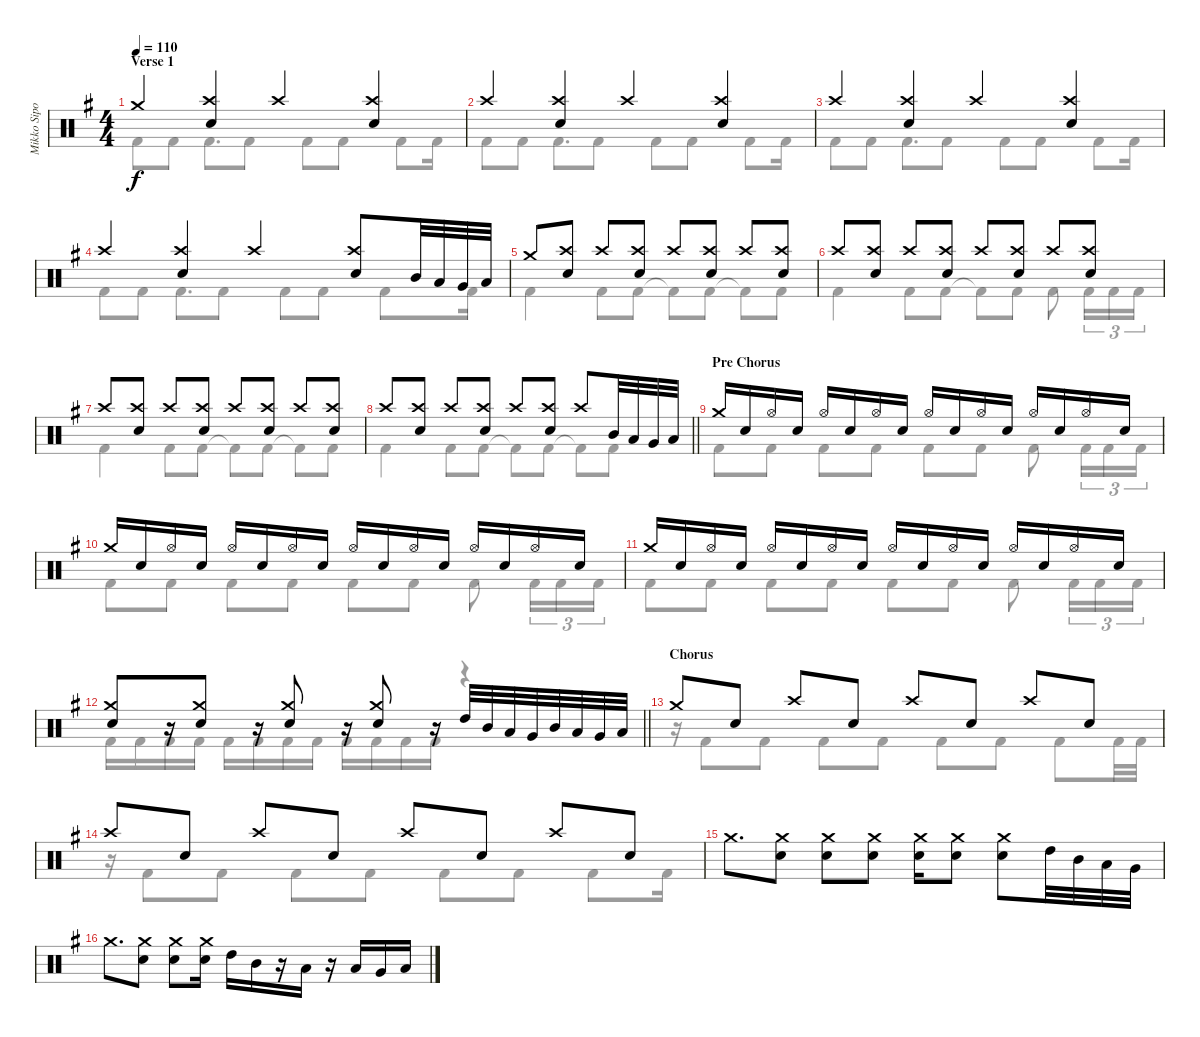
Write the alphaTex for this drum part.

\track ("Mikko Sipola (drums)" "Mikko Sipo") {instrument percussion}
\staff {score}
\articulation defaults
\voice
\ts (4 4)
\section ("" "Verse 1")
\tempo 110
\clef neutral
\ks eminor "Crash medium (hit)".4{dy f}
("Crash high (hit)" "Electric Snare (hit)").4 "Crash high (hit)".4 ("Crash high (hit)" "Electric Snare (hit)").4 |
"Crash high (hit)".4 ("Crash high (hit)" "Electric Snare (hit)").4 "Crash high (hit)".4 ("Crash high (hit)" "Electric Snare (hit)").4 |
"Crash high (hit)".4 ("Crash high (hit)" "Electric Snare (hit)").4 "Crash high (hit)".4 ("Crash high (hit)" "Electric Snare (hit)").4 |
"Crash high (hit)".4 ("Crash high (hit)" "Electric Snare (hit)").4 "Crash high (hit)".4 ("Crash high (hit)" "Electric Snare (hit)").8 "Mid Tom (hit)".32 "Low Tom (hit)".32 "Very Low Tom (hit)".32 "Low Floor Tom (hit)".32 |
"Crash medium (hit)".8 ("Crash high (hit)" "Electric Snare (hit)").8 "Crash high (hit)".8 ("Crash high (hit)" "Electric Snare (hit)").8 "Crash high (hit)".8 ("Crash high (hit)" "Electric Snare (hit)").8 "Crash high (hit)".8 ("Crash high (hit)" "Electric Snare (hit)").8 |
"Crash high (hit)".8 ("Crash high (hit)" "Electric Snare (hit)").8 "Crash high (hit)".8 ("Crash high (hit)" "Electric Snare (hit)").8 "Crash high (hit)".8 ("Crash high (hit)" "Electric Snare (hit)").8 "Crash high (hit)".8 ("Crash high (hit)" "Electric Snare (hit)").8 |
"Crash high (hit)".8 ("Crash high (hit)" "Electric Snare (hit)").8 "Crash high (hit)".8 ("Crash high (hit)" "Electric Snare (hit)").8 "Crash high (hit)".8 ("Crash high (hit)" "Electric Snare (hit)").8 "Crash high (hit)".8 ("Crash high (hit)" "Electric Snare (hit)").8 |
\barLineRight lightlight "Crash high (hit)".8
("Crash high (hit)" "Electric Snare (hit)").8 "Crash high (hit)".8 ("Crash high (hit)" "Electric Snare (hit)").8 "Crash high (hit)".8 ("Crash high (hit)" "Electric Snare (hit)").8 "Crash high (hit)".8 "Mid Tom (hit)".32 "Low Tom (hit)".32 "Very Low Tom (hit)".32 "Low Floor Tom (hit)".32 |
\section ("" "Pre Chorus")
"Crash medium (hit)".16 "Electric Snare (hit)".16 "Hi-Hat (open)".16 "Electric Snare (hit)".16 "Hi-Hat (open)".16 "Electric Snare (hit)".16 "Hi-Hat (open)".16 "Electric Snare (hit)".16 "Hi-Hat (open)".16 "Electric Snare (hit)".16 "Hi-Hat (open)".16 "Electric Snare (hit)".16 "Hi-Hat (open)".16 "Electric Snare (hit)".16 "Hi-Hat (open)".16 "Electric Snare (hit)".16 |
"Crash medium (hit)".16 "Electric Snare (hit)".16 "Hi-Hat (open)".16 "Electric Snare (hit)".16 "Hi-Hat (open)".16 "Electric Snare (hit)".16 "Hi-Hat (open)".16 "Electric Snare (hit)".16 "Hi-Hat (open)".16 "Electric Snare (hit)".16 "Hi-Hat (open)".16 "Electric Snare (hit)".16 "Hi-Hat (open)".16 "Electric Snare (hit)".16 "Hi-Hat (open)".16 "Electric Snare (hit)".16 |
"Crash medium (hit)".16 "Electric Snare (hit)".16 "Hi-Hat (open)".16 "Electric Snare (hit)".16 "Hi-Hat (open)".16 "Electric Snare (hit)".16 "Hi-Hat (open)".16 "Electric Snare (hit)".16 "Hi-Hat (open)".16 "Electric Snare (hit)".16 "Hi-Hat (open)".16 "Electric Snare (hit)".16 "Hi-Hat (open)".16 "Electric Snare (hit)".16 "Hi-Hat (open)".16 "Electric Snare (hit)".16 |
\barLineRight lightlight
("Crash medium (hit)" "Electric Snare (hit)").8 r.16 ("Crash medium (hit)" "Electric Snare (hit)").8 r.16 ("Crash medium (hit)" "Electric Snare (hit)").8 r.16 ("Crash medium (hit)" "Electric Snare (hit)").8 r.16 "High Tom (hit)".32 "Mid Tom (hit)".32 "Low Tom (hit)".32 "Very Low Tom (hit)".32 "Mid Tom (hit)".32 "Low Tom (hit)".32 "Very Low Tom (hit)".32 "Low Floor Tom (hit)".32 |
\section ("" "Chorus")
"Crash medium (hit)".8 "Electric Snare (hit)".8 "Crash high (hit)".8 "Electric Snare (hit)".8 "Crash high (hit)".8 "Electric Snare (hit)".8 "Crash high (hit)".8 "Electric Snare (hit)".8 |
"Crash high (hit)".8 "Electric Snare (hit)".8 "Crash high (hit)".8 "Electric Snare (hit)".8 "Crash high (hit)".8 "Electric Snare (hit)".8 "Crash high (hit)".8 "Electric Snare (hit)".8 |
"Crash medium (hit)".8{d} ("Crash medium (hit)" "Electric Snare (hit)").8 ("Crash medium (hit)" "Electric Snare (hit)").8 ("Crash medium (hit)" "Electric Snare (hit)").8 ("Crash medium (hit)" "Electric Snare (hit)").16 ("Crash medium (hit)" "Electric Snare (hit)").8 ("Crash medium (hit)" "Electric Snare (hit)").8 "High Tom (hit)".32 "Mid Tom (hit)".32 "Low Tom (hit)".32 "Very Low Tom (hit)".32 |
"Crash medium (hit)".8{d} ("Crash medium (hit)" "Electric Snare (hit)").8 ("Crash medium (hit)" "Electric Snare (hit)").8 ("Crash medium (hit)" "Electric Snare (hit)").16 "High Tom (hit)".16 "Mid Tom (hit)".16 r.16 "Low Tom (hit)".16 r.16 "Low Tom (hit)".16 "Very Low Tom (hit)".16 "Low Floor Tom (hit)".16
\voice
\clef neutral
\ottava regular
\simile none
\ks eminor "Kick (hit) 2".8{dy f} "Kick (hit) 2".8 "Kick (hit) 2".8{d} "Kick (hit) 2".8 "Kick (hit) 2".8 "Kick (hit) 2".8 "Kick (hit) 2".8 "Kick (hit) 2".16
|
"Kick (hit) 2".8 "Kick (hit) 2".8 "Kick (hit) 2".8{d} "Kick (hit) 2".8 "Kick (hit) 2".8 "Kick (hit) 2".8 "Kick (hit) 2".8 "Kick (hit) 2".16 |
"Kick (hit) 2".8 "Kick (hit) 2".8 "Kick (hit) 2".8{d} "Kick (hit) 2".8 "Kick (hit) 2".8 "Kick (hit) 2".8 "Kick (hit) 2".8 "Kick (hit) 2".16 |
"Kick (hit) 2".8 "Kick (hit) 2".8 "Kick (hit) 2".8{d} "Kick (hit) 2".8 "Kick (hit) 2".8 "Kick (hit) 2".8 "Kick (hit) 2".8 "Kick (hit) 2".16 |
"Kick (hit) 2".4 "Kick (hit) 2".8 "Kick (hit) 2".8 "Kick (hit) 2"{t}.8 "Kick (hit) 2".8 "Kick (hit) 2"{t}.8 "Kick (hit) 2".8 |
"Kick (hit) 2".4 "Kick (hit) 2".8 "Kick (hit) 2".8 "Kick (hit) 2"{t}.8 "Kick (hit) 2".8 "Kick (hit) 2".8 "Kick (hit) 2".16{tu (3 2)} "Kick (hit) 2".16{tu (3 2)} "Kick (hit) 2".16{tu (3 2)} |
"Kick (hit) 2".4 "Kick (hit) 2".8 "Kick (hit) 2".8 "Kick (hit) 2"{t}.8 "Kick (hit) 2".8 "Kick (hit) 2"{t}.8 "Kick (hit) 2".8 |
\barLineRight lightlight "Kick (hit) 2".4 "Kick (hit) 2".8 "Kick (hit) 2".8 "Kick (hit) 2"{t}.8 "Kick (hit) 2".8 "Kick (hit) 2"{t}.8 "Kick (hit) 2".8
|
"Kick (hit) 2".8 "Kick (hit) 2".8 "Kick (hit) 2".8 "Kick (hit) 2".8 "Kick (hit) 2".8 "Kick (hit) 2".8 "Kick (hit) 2".8 "Kick (hit) 2".16{tu (3 2)} "Kick (hit) 2".16{tu (3 2)} "Kick (hit) 2".16{tu (3 2)} |
"Kick (hit) 2".8 "Kick (hit) 2".8 "Kick (hit) 2".8 "Kick (hit) 2".8 "Kick (hit) 2".8 "Kick (hit) 2".8 "Kick (hit) 2".8 "Kick (hit) 2".16{tu (3 2)} "Kick (hit) 2".16{tu (3 2)} "Kick (hit) 2".16{tu (3 2)} |
"Kick (hit) 2".8 "Kick (hit) 2".8 "Kick (hit) 2".8 "Kick (hit) 2".8 "Kick (hit) 2".8 "Kick (hit) 2".8 "Kick (hit) 2".8 "Kick (hit) 2".16{tu (3 2)} "Kick (hit) 2".16{tu (3 2)} "Kick (hit) 2".16{tu (3 2)} |
\barLineRight lightlight "Kick (hit) 2".16 "Kick (hit) 2".16 "Kick (hit) 2".16 "Kick (hit) 2".16 "Kick (hit) 2".16 "Kick (hit) 2".16 "Kick (hit) 2".16 "Kick (hit) 2".16 "Kick (hit) 2".16 "Kick (hit) 2".16 "Kick (hit) 2".16 "Kick (hit) 2".16
r.4 |
r.16 "Kick (hit) 2".8 "Kick (hit) 2".8 "Kick (hit) 2".8 "Kick (hit) 2".8 "Kick (hit) 2".8 "Kick (hit) 2".8 "Kick (hit) 2".8 "Kick (hit) 2".32 "Kick (hit) 2".32 |
r.16 "Kick (hit) 2".8 "Kick (hit) 2".8 "Kick (hit) 2".8 "Kick (hit) 2".8 "Kick (hit) 2".8 "Kick (hit) 2".8 "Kick (hit) 2".8 "Kick (hit) 2".16 |
|
